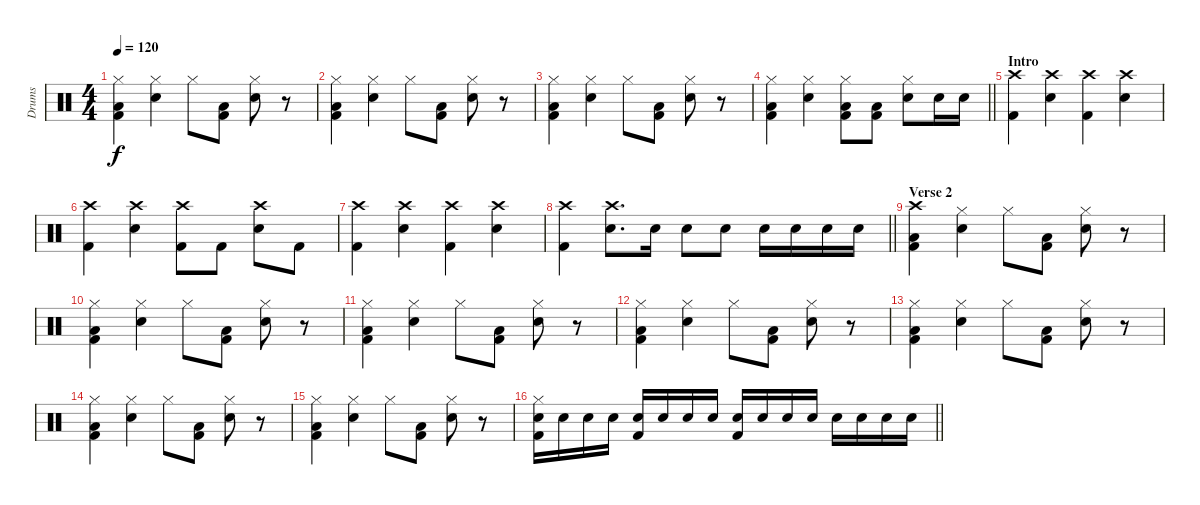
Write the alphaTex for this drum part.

\track ("Drums" "Drums") {instrument percussion}
\staff {score}
\articulation defaults
\ts (4 4)
\tempo 120
\clef neutral
\ks c
("Hi-Hat (closed)" "Low Floor Tom (hit)" "Kick (hit) 2").4{dy f} ("Hi-Hat (closed)" "Electric Snare (hit)").4 "Hi-Hat (closed)".8 ("Low Floor Tom (hit)" "Kick (hit) 2").8 ("Hi-Hat (closed)" "Electric Snare (hit)").8 r.8 |
("Hi-Hat (closed)" "Low Floor Tom (hit)" "Kick (hit) 2").4 ("Hi-Hat (closed)" "Electric Snare (hit)").4 "Hi-Hat (closed)".8 ("Low Floor Tom (hit)" "Kick (hit) 2").8 ("Hi-Hat (closed)" "Electric Snare (hit)").8 r.8 |
("Hi-Hat (closed)" "Low Floor Tom (hit)" "Kick (hit) 2").4 ("Hi-Hat (closed)" "Electric Snare (hit)").4 "Hi-Hat (closed)".8 ("Low Floor Tom (hit)" "Kick (hit) 2").8 ("Hi-Hat (closed)" "Electric Snare (hit)").8 r.8 |
\barLineRight lightlight
("Hi-Hat (closed)" "Low Floor Tom (hit)" "Kick (hit) 2").4 ("Hi-Hat (closed)" "Electric Snare (hit)").4 ("Hi-Hat (closed)" "Low Floor Tom (hit)" "Kick (hit) 2").8 ("Low Floor Tom (hit)" "Kick (hit) 2").8 ("Hi-Hat (closed)" "Electric Snare (hit)").8 "Electric Snare (hit)".16 "Electric Snare (hit)".16 |
\section ("" "Intro")
("Crash high (hit)" "Kick (hit) 2").4 ("Crash high (hit)" "Electric Snare (hit)").4 ("Crash high (hit)" "Kick (hit) 2").4 ("Crash high (hit)" "Electric Snare (hit)").4 |
("Crash high (hit)" "Kick (hit) 2").4 ("Crash high (hit)" "Electric Snare (hit)").4 ("Crash high (hit)" "Kick (hit) 2").8 "Kick (hit) 2".8 ("Crash high (hit)" "Electric Snare (hit)").8 "Kick (hit) 2".8 |
("Crash high (hit)" "Kick (hit) 2").4 ("Crash high (hit)" "Electric Snare (hit)").4 ("Crash high (hit)" "Kick (hit) 2").4 ("Crash high (hit)" "Electric Snare (hit)").4 |
\barLineRight lightlight
("Crash high (hit)" "Kick (hit) 2").4 ("Crash high (hit)" "Electric Snare (hit)").8{d} "Electric Snare (hit)".16 "Electric Snare (hit)".8 "Electric Snare (hit)".8 "Electric Snare (hit)".16 "Electric Snare (hit)".16 "Electric Snare (hit)".16 "Electric Snare (hit)".16 |
\section ("" "Verse 2")
("Crash high (hit)" "Low Floor Tom (hit)" "Kick (hit) 2").4 ("Hi-Hat (closed)" "Electric Snare (hit)").4 "Hi-Hat (closed)".8 ("Low Floor Tom (hit)" "Kick (hit) 2").8 ("Hi-Hat (closed)" "Electric Snare (hit)").8 r.8 |
("Hi-Hat (closed)" "Low Floor Tom (hit)" "Kick (hit) 2").4 ("Hi-Hat (closed)" "Electric Snare (hit)").4 "Hi-Hat (closed)".8 ("Low Floor Tom (hit)" "Kick (hit) 2").8 ("Hi-Hat (closed)" "Electric Snare (hit)").8 r.8 |
("Hi-Hat (closed)" "Low Floor Tom (hit)" "Kick (hit) 2").4 ("Hi-Hat (closed)" "Electric Snare (hit)").4 "Hi-Hat (closed)".8 ("Low Floor Tom (hit)" "Kick (hit) 2").8 ("Hi-Hat (closed)" "Electric Snare (hit)").8 r.8 |
("Hi-Hat (closed)" "Low Floor Tom (hit)" "Kick (hit) 2").4 ("Hi-Hat (closed)" "Electric Snare (hit)").4 "Hi-Hat (closed)".8 ("Low Floor Tom (hit)" "Kick (hit) 2").8 ("Hi-Hat (closed)" "Electric Snare (hit)").8 r.8 |
("Hi-Hat (closed)" "Low Floor Tom (hit)" "Kick (hit) 2").4 ("Hi-Hat (closed)" "Electric Snare (hit)").4 "Hi-Hat (closed)".8 ("Low Floor Tom (hit)" "Kick (hit) 2").8 ("Hi-Hat (closed)" "Electric Snare (hit)").8 r.8 |
("Hi-Hat (closed)" "Low Floor Tom (hit)" "Kick (hit) 2").4 ("Hi-Hat (closed)" "Electric Snare (hit)").4 "Hi-Hat (closed)".8 ("Low Floor Tom (hit)" "Kick (hit) 2").8 ("Hi-Hat (closed)" "Electric Snare (hit)").8 r.8 |
("Hi-Hat (closed)" "Low Floor Tom (hit)" "Kick (hit) 2").4 ("Hi-Hat (closed)" "Electric Snare (hit)").4 "Hi-Hat (closed)".8 ("Low Floor Tom (hit)" "Kick (hit) 2").8 ("Hi-Hat (closed)" "Electric Snare (hit)").8 r.8 |
\barLineRight lightlight
("Hi-Hat (closed)" "Electric Snare (hit)" "Kick (hit) 2").16 "Electric Snare (hit)".16 "Electric Snare (hit)".16 "Electric Snare (hit)".16 ("Electric Snare (hit)" "Kick (hit) 2").16 "Electric Snare (hit)".16 "Electric Snare (hit)".16 "Electric Snare (hit)".16 ("Electric Snare (hit)" "Kick (hit) 2").16 "Electric Snare (hit)".16 "Electric Snare (hit)".16 "Electric Snare (hit)".16 "Electric Snare (hit)".16 "Electric Snare (hit)".16 "Electric Snare (hit)".16 "Electric Snare (hit)".16
